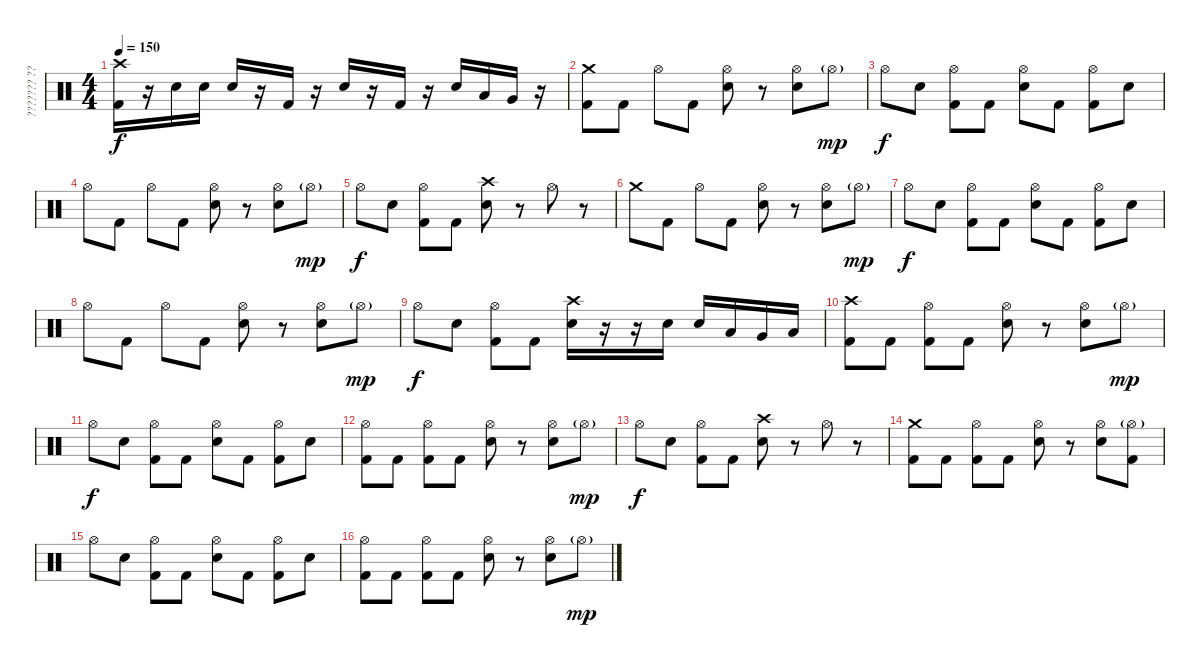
\track ("??????? ?????????" "??????? ??") {instrument percussion}
\staff {score}
\articulation defaults
\ts (4 4)
\tempo 150
\clef neutral
\ks c
("Crash high (hit)" "Kick (hit) 2").16{dy f} r.16 "Electric Snare (hit)".16 "Electric Snare (hit)".16 "Electric Snare (hit)".16 r.16 "Kick (hit) 2".16 r.16 "Electric Snare (hit)".16 r.16 "Kick (hit) 2".16 r.16 "Electric Snare (hit)".16 "Low Tom (hit)".16 "Very Low Tom (hit)".16 r.16 |
("Crash medium (hit)" "Kick (hit) 2").8 "Kick (hit) 2".8 "Hi-Hat (open)".8 "Kick (hit) 2".8 ("Hi-Hat (open)" "Electric Snare (hit)").8 r.8 ("Hi-Hat (open)" "Electric Snare (hit)").8 "Hi-Hat (open)"{g}.8{dy mp} |
"Hi-Hat (open)".8{dy f} "Electric Snare (hit)".8 ("Hi-Hat (open)" "Kick (hit) 2").8 "Kick (hit) 2".8 ("Hi-Hat (open)" "Electric Snare (hit)").8 "Kick (hit) 2".8 ("Hi-Hat (open)" "Kick (hit) 2").8 "Electric Snare (hit)".8 |
"Hi-Hat (open)".8 "Kick (hit) 2".8 "Hi-Hat (open)".8 "Kick (hit) 2".8 ("Hi-Hat (open)" "Electric Snare (hit)").8 r.8 ("Hi-Hat (open)" "Electric Snare (hit)").8 "Hi-Hat (open)"{g}.8{dy mp} |
"Hi-Hat (open)".8{dy f} "Electric Snare (hit)".8 ("Hi-Hat (open)" "Kick (hit) 2").8 "Kick (hit) 2".8 ("Crash high (hit)" "Electric Snare (hit)").8 r.8 "Hi-Hat (open)".8 r.8 |
"Crash medium (hit)".8 "Kick (hit) 2".8 "Hi-Hat (open)".8 "Kick (hit) 2".8 ("Hi-Hat (open)" "Electric Snare (hit)").8 r.8 ("Hi-Hat (open)" "Electric Snare (hit)").8 "Hi-Hat (open)"{g}.8{dy mp} |
"Hi-Hat (open)".8{dy f} "Electric Snare (hit)".8 ("Hi-Hat (open)" "Kick (hit) 2").8 "Kick (hit) 2".8 ("Hi-Hat (open)" "Electric Snare (hit)").8 "Kick (hit) 2".8 ("Hi-Hat (open)" "Kick (hit) 2").8 "Electric Snare (hit)".8 |
"Hi-Hat (open)".8 "Kick (hit) 2".8 "Hi-Hat (open)".8 "Kick (hit) 2".8 ("Hi-Hat (open)" "Electric Snare (hit)").8 r.8 ("Hi-Hat (open)" "Electric Snare (hit)").8 "Hi-Hat (open)"{g}.8{dy mp} |
"Hi-Hat (open)".8{dy f} "Electric Snare (hit)".8 ("Hi-Hat (open)" "Kick (hit) 2").8 "Kick (hit) 2".8 ("Crash high (hit)" "Electric Snare (hit)").16 r.16 r.16 "Electric Snare (hit)".16 "Electric Snare (hit)".16 "Low Tom (hit)".16 "Very Low Tom (hit)".16 "Low Floor Tom (hit)".16 |
("Crash high (hit)" "Kick (hit) 2").8 "Kick (hit) 2".8 ("Hi-Hat (open)" "Kick (hit) 2").8 "Kick (hit) 2".8 ("Hi-Hat (open)" "Electric Snare (hit)").8 r.8 ("Hi-Hat (open)" "Electric Snare (hit)").8 "Hi-Hat (open)"{g}.8{dy mp} |
"Hi-Hat (open)".8{dy f} "Electric Snare (hit)".8 ("Hi-Hat (open)" "Kick (hit) 2").8 "Kick (hit) 2".8 ("Hi-Hat (open)" "Electric Snare (hit)").8 "Kick (hit) 2".8 ("Hi-Hat (open)" "Kick (hit) 2").8 "Electric Snare (hit)".8 |
("Hi-Hat (open)" "Kick (hit) 2").8 "Kick (hit) 2".8 ("Hi-Hat (open)" "Kick (hit) 2").8 "Kick (hit) 2".8 ("Hi-Hat (open)" "Electric Snare (hit)").8 r.8 ("Hi-Hat (open)" "Electric Snare (hit)").8 "Hi-Hat (open)"{g}.8{dy mp} |
"Hi-Hat (open)".8{dy f} "Electric Snare (hit)".8 ("Hi-Hat (open)" "Kick (hit) 2").8 "Kick (hit) 2".8 ("Crash high (hit)" "Electric Snare (hit)").8 r.8 "Hi-Hat (open)".8 r.8 |
("Crash medium (hit)" "Kick (hit) 2").8 "Kick (hit) 2".8 ("Hi-Hat (open)" "Kick (hit) 2").8 "Kick (hit) 2".8 ("Hi-Hat (open)" "Electric Snare (hit)").8 r.8 ("Hi-Hat (open)" "Electric Snare (hit)").8 ("Hi-Hat (open)"{g} "Kick (hit) 2").8 |
"Hi-Hat (open)".8 "Electric Snare (hit)".8 ("Hi-Hat (open)" "Kick (hit) 2").8 "Kick (hit) 2".8 ("Hi-Hat (open)" "Electric Snare (hit)").8 "Kick (hit) 2".8 ("Hi-Hat (open)" "Kick (hit) 2").8 "Electric Snare (hit)".8 |
("Hi-Hat (open)" "Kick (hit) 2").8 "Kick (hit) 2".8 ("Hi-Hat (open)" "Kick (hit) 2").8 "Kick (hit) 2".8 ("Hi-Hat (open)" "Electric Snare (hit)").8 r.8 ("Hi-Hat (open)" "Electric Snare (hit)").8 "Hi-Hat (open)"{g}.8{dy mp}
